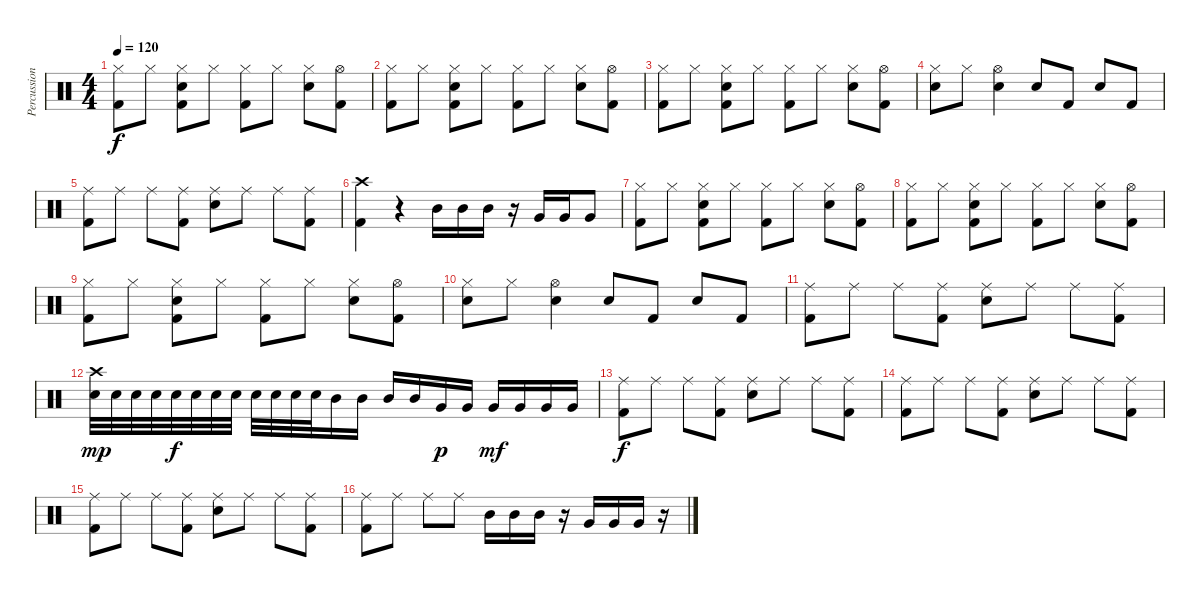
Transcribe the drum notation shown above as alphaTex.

\track ("Percussions" "Percussion") {instrument percussion}
\staff {score}
\articulation defaults
\ts (4 4)
\tempo 120
\clef neutral
\ks c
("Hi-Hat (closed)" "Kick (hit) 2").8{dy f} "Hi-Hat (closed)".8 ("Hi-Hat (closed)" "Snare (hit) 2" "Kick (hit) 2").8 "Hi-Hat (closed)".8 ("Hi-Hat (closed)" "Kick (hit) 2").8 "Hi-Hat (closed)".8 ("Hi-Hat (closed)" "Snare (hit) 2").8 ("Hi-Hat (open)" "Kick (hit) 2").8 |
("Hi-Hat (closed)" "Kick (hit) 2").8 "Hi-Hat (closed)".8 ("Hi-Hat (closed)" "Snare (hit) 2" "Kick (hit) 2").8 "Hi-Hat (closed)".8 ("Hi-Hat (closed)" "Kick (hit) 2").8 "Hi-Hat (closed)".8 ("Hi-Hat (closed)" "Snare (hit) 2").8 ("Hi-Hat (open)" "Kick (hit) 2").8 |
("Hi-Hat (closed)" "Kick (hit) 2").8 "Hi-Hat (closed)".8 ("Hi-Hat (closed)" "Snare (hit) 2" "Kick (hit) 2").8 "Hi-Hat (closed)".8 ("Hi-Hat (closed)" "Kick (hit) 2").8 "Hi-Hat (closed)".8 ("Hi-Hat (closed)" "Snare (hit) 2").8 ("Hi-Hat (open)" "Kick (hit) 2").8 |
("Hi-Hat (closed)" "Snare (hit) 2").8 "Hi-Hat (closed)".8 ("Hi-Hat (open)" "Snare (hit) 2").4 "Snare (hit) 2".8 "Kick (hit) 2".8 "Snare (hit) 2".8 "Kick (hit) 2".8 |
("Ride (middle)" "Kick (hit) 2").8 "Ride (middle)".8 "Ride (middle)".8 ("Ride (middle)" "Kick (hit) 2").8 ("Ride (middle)" "Snare (hit) 2").8 "Ride (middle)".8 "Ride (middle)".8 ("Ride (middle)" "Kick (hit) 2").8 |
("Crash high (hit)" "Kick (hit) 2").4 r.4 "Mid Tom (hit)".16 "Mid Tom (hit)".16 "Mid Tom (hit)".16 r.16 "Very Low Tom (hit)".16 "Very Low Tom (hit)".16 "Very Low Tom (hit)".8 |
("Hi-Hat (closed)" "Kick (hit) 2").8 "Hi-Hat (closed)".8 ("Hi-Hat (closed)" "Snare (hit) 2" "Kick (hit) 2").8 "Hi-Hat (closed)".8 ("Hi-Hat (closed)" "Kick (hit) 2").8 "Hi-Hat (closed)".8 ("Hi-Hat (closed)" "Snare (hit) 2").8 ("Hi-Hat (open)" "Kick (hit) 2").8 |
("Hi-Hat (closed)" "Kick (hit) 2").8 "Hi-Hat (closed)".8 ("Hi-Hat (closed)" "Snare (hit) 2" "Kick (hit) 2").8 "Hi-Hat (closed)".8 ("Hi-Hat (closed)" "Kick (hit) 2").8 "Hi-Hat (closed)".8 ("Hi-Hat (closed)" "Snare (hit) 2").8 ("Hi-Hat (open)" "Kick (hit) 2").8 |
("Hi-Hat (closed)" "Kick (hit) 2").8 "Hi-Hat (closed)".8 ("Hi-Hat (closed)" "Snare (hit) 2" "Kick (hit) 2").8 "Hi-Hat (closed)".8 ("Hi-Hat (closed)" "Kick (hit) 2").8 "Hi-Hat (closed)".8 ("Hi-Hat (closed)" "Snare (hit) 2").8 ("Hi-Hat (open)" "Kick (hit) 2").8 |
("Hi-Hat (closed)" "Snare (hit) 2").8 "Hi-Hat (closed)".8 ("Hi-Hat (open)" "Snare (hit) 2").4 "Snare (hit) 2".8 "Kick (hit) 2".8 "Snare (hit) 2".8 "Kick (hit) 2".8 |
("Ride (middle)" "Kick (hit) 2").8 "Ride (middle)".8 "Ride (middle)".8 ("Ride (middle)" "Kick (hit) 2").8 ("Ride (middle)" "Snare (hit) 2").8 "Ride (middle)".8 "Ride (middle)".8 ("Ride (middle)" "Kick (hit) 2").8 |
("Crash high (hit)" "Snare (hit) 2").32{dy mp} "Snare (hit) 2".32 "Snare (hit) 2".32 "Snare (hit) 2".32 "Snare (hit) 2".32{dy f} "Snare (hit) 2".32 "Snare (hit) 2".32 "Snare (hit) 2".32 "Snare (hit) 2".32 "Snare (hit) 2".32 "Snare (hit) 2".32 "Snare (hit) 2".32 "Mid Tom (hit)".16 "Mid Tom (hit)".16 "Mid Tom (hit)".16 "Mid Tom (hit)".16 "Very Low Tom (hit)".16{dy p} "Very Low Tom (hit)".16 "Very Low Tom (hit)".16{dy mf} "Very Low Tom (hit)".16 "Very Low Tom (hit)".16 "Very Low Tom (hit)".16 |
("Ride (middle)" "Kick (hit) 2").8{dy f} "Ride (middle)".8 "Ride (middle)".8 ("Ride (middle)" "Kick (hit) 2").8 ("Ride (middle)" "Snare (hit) 2").8 "Ride (middle)".8 "Ride (middle)".8 ("Ride (middle)" "Kick (hit) 2").8 |
("Ride (middle)" "Kick (hit) 2").8 "Ride (middle)".8 "Ride (middle)".8 ("Ride (middle)" "Kick (hit) 2").8 ("Ride (middle)" "Snare (hit) 2").8 "Ride (middle)".8 "Ride (middle)".8 ("Ride (middle)" "Kick (hit) 2").8 |
("Ride (middle)" "Kick (hit) 2").8 "Ride (middle)".8 "Ride (middle)".8 ("Ride (middle)" "Kick (hit) 2").8 ("Ride (middle)" "Snare (hit) 2").8 "Ride (middle)".8 "Ride (middle)".8 ("Ride (middle)" "Kick (hit) 2").8 |
("Ride (middle)" "Kick (hit) 2").8 "Ride (middle)".8 "Ride (middle)".8 "Ride (middle)".8 "Mid Tom (hit)".16 "Mid Tom (hit)".16 "Mid Tom (hit)".16 r.16 "Very Low Tom (hit)".16 "Very Low Tom (hit)".16 "Very Low Tom (hit)".16 r.16
